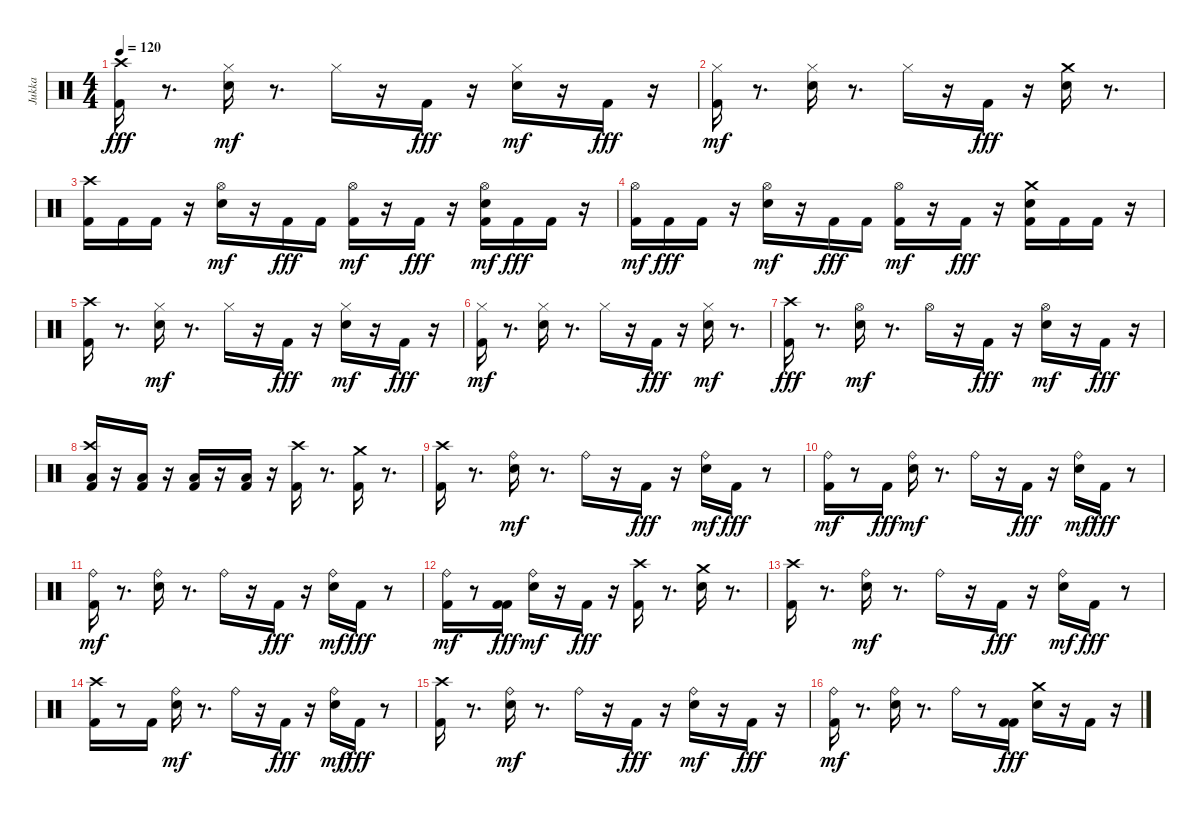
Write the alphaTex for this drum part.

\track ("Jukka" "Jukka") {instrument percussion}
\staff {score}
\articulation defaults
\ts (4 4)
\tempo 120
\clef neutral
\ks c
("Kick (hit) 2" "Crash high (hit)").16{dy fff} r.8{d} ("Electric Snare (hit)" "Hi-Hat (closed)").16{dy mf} r.8{d} "Hi-Hat (closed)".16 r.16 "Kick (hit) 2".16{dy fff} r.16 ("Electric Snare (hit)" "Hi-Hat (closed)").16{dy mf} r.16 "Kick (hit) 2".16{dy fff} r.16 |
("Kick (hit) 2" "Hi-Hat (closed)").16{dy mf} r.8{d} ("Electric Snare (hit)" "Hi-Hat (closed)").16 r.8{d} "Hi-Hat (closed)".16 r.16 "Kick (hit) 2".16{dy fff} r.16 ("Electric Snare (hit)" "Crash medium (hit)").16 r.8{d} |
("Kick (hit) 2" "Crash high (hit)").16 "Kick (hit) 2".16 "Kick (hit) 2".16 r.16 ("Electric Snare (hit)" "Hi-Hat (open)").16{dy mf} r.16 "Kick (hit) 2".16{dy fff} "Kick (hit) 2".16 ("Kick (hit) 2" "Hi-Hat (open)").16{dy mf} r.16 "Kick (hit) 2".16{dy fff} r.16 ("Electric Snare (hit)" "Kick (hit) 2" "Hi-Hat (open)").16{dy mf} "Kick (hit) 2".16{dy fff} "Kick (hit) 2".16 r.16 |
("Kick (hit) 2" "Hi-Hat (open)").16{dy mf} "Kick (hit) 2".16{dy fff} "Kick (hit) 2".16 r.16 ("Electric Snare (hit)" "Hi-Hat (open)").16{dy mf} r.16 "Kick (hit) 2".16{dy fff} "Kick (hit) 2".16 ("Kick (hit) 2" "Hi-Hat (open)").16{dy mf} r.16 "Kick (hit) 2".16{dy fff} r.16 ("Electric Snare (hit)" "Kick (hit) 2" "Crash medium (hit)").16 "Kick (hit) 2".16 "Kick (hit) 2".16 r.16 |
("Kick (hit) 2" "Crash high (hit)").16 r.8{d} ("Electric Snare (hit)" "Hi-Hat (closed)").16{dy mf} r.8{d} "Hi-Hat (closed)".16 r.16 "Kick (hit) 2".16{dy fff} r.16 ("Electric Snare (hit)" "Hi-Hat (closed)").16{dy mf} r.16 "Kick (hit) 2".16{dy fff} r.16 |
("Kick (hit) 2" "Hi-Hat (closed)").16{dy mf} r.8{d} ("Electric Snare (hit)" "Hi-Hat (closed)").16 r.8{d} "Hi-Hat (closed)".16 r.16 "Kick (hit) 2".16{dy fff} r.16 ("Electric Snare (hit)" "Hi-Hat (closed)").16{dy mf} r.8{d} |
("Kick (hit) 2" "Crash high (hit)").16{dy fff} r.8{d} ("Electric Snare (hit)" "Hi-Hat (open)").16{dy mf} r.8{d} "Hi-Hat (open)".16 r.16 "Kick (hit) 2".16{dy fff} r.16 ("Electric Snare (hit)" "Hi-Hat (open)").16{dy mf} r.16 "Kick (hit) 2".16{dy fff} r.16 |
("Kick (hit) 2" "Low Floor Tom (hit)" "Crash high (hit)").16 r.16 ("Kick (hit) 2" "Low Floor Tom (hit)").16 r.16 ("Kick (hit) 2" "Low Floor Tom (hit)").16 r.16 ("Kick (hit) 2" "Low Floor Tom (hit)").16 r.16 ("Kick (hit) 2" "Crash high (hit)").16 r.8{d} ("Kick (hit) 2" "Crash medium (hit)").16 r.8{d} |
("Kick (hit) 2" "Crash high (hit)").16 r.8{d} ("Electric Snare (hit)" "Ride (bell)").16{dy mf} r.8{d} "Ride (bell)".16 r.16 "Kick (hit) 2".16{dy fff} r.16 ("Electric Snare (hit)" "Ride (bell)").16{dy mf} "Kick (hit) 2".16{dy fff} r.8 |
("Kick (hit) 2" "Ride (bell)").16{dy mf} r.8 "Kick (hit) 2".16{dy fff} ("Electric Snare (hit)" "Ride (bell)").16{dy mf} r.8{d} "Ride (bell)".16 r.16 "Kick (hit) 2".16{dy fff} r.16 ("Electric Snare (hit)" "Ride (bell)").16{dy mf} "Kick (hit) 2".16{dy fff} r.8 |
("Kick (hit) 2" "Ride (bell)").16{dy mf} r.8{d} ("Electric Snare (hit)" "Ride (bell)").16 r.8{d} "Ride (bell)".16 r.16 "Kick (hit) 2".16{dy fff} r.16 ("Electric Snare (hit)" "Ride (bell)").16{dy mf} "Kick (hit) 2".16{dy fff} r.8 |
("Kick (hit) 2" "Ride (bell)").16{dy mf} r.8 ("Kick (hit) 2" "Kick (hit) 2").16{dy fff} ("Electric Snare (hit)" "Ride (bell)").16{dy mf} r.16 "Kick (hit) 2".16{dy fff} r.16 ("Kick (hit) 2" "Crash high (hit)").16 r.8{d} ("Electric Snare (hit)" "Crash medium (hit)").16 r.8{d} |
("Kick (hit) 2" "Crash high (hit)").16 r.8{d} ("Electric Snare (hit)" "Ride (bell)").16{dy mf} r.8{d} "Ride (bell)".16 r.16 "Kick (hit) 2".16{dy fff} r.16 ("Electric Snare (hit)" "Ride (bell)").16{dy mf} "Kick (hit) 2".16{dy fff} r.8 |
("Kick (hit) 2" "Crash high (hit)").16 r.8 "Kick (hit) 2".16 ("Electric Snare (hit)" "Ride (bell)").16{dy mf} r.8{d} "Ride (bell)".16 r.16 "Kick (hit) 2".16{dy fff} r.16 ("Electric Snare (hit)" "Ride (bell)").16{dy mf} "Kick (hit) 2".16{dy fff} r.8 |
("Kick (hit) 2" "Crash high (hit)").16 r.8{d} ("Electric Snare (hit)" "Ride (bell)").16{dy mf} r.8{d} "Ride (bell)".16 r.16 "Kick (hit) 2".16{dy fff} r.16 ("Electric Snare (hit)" "Ride (bell)").16{dy mf} r.16 "Kick (hit) 2".16{dy fff} r.16 |
("Kick (hit) 2" "Ride (bell)").16{dy mf} r.8{d} ("Electric Snare (hit)" "Ride (bell)").16 r.8{d} "Ride (bell)".16 r.8 ("Kick (hit) 2" "Kick (hit) 2").16{dy fff} ("Electric Snare (hit)" "Crash medium (hit)").16 r.16 "Kick (hit) 2".16 r.16
